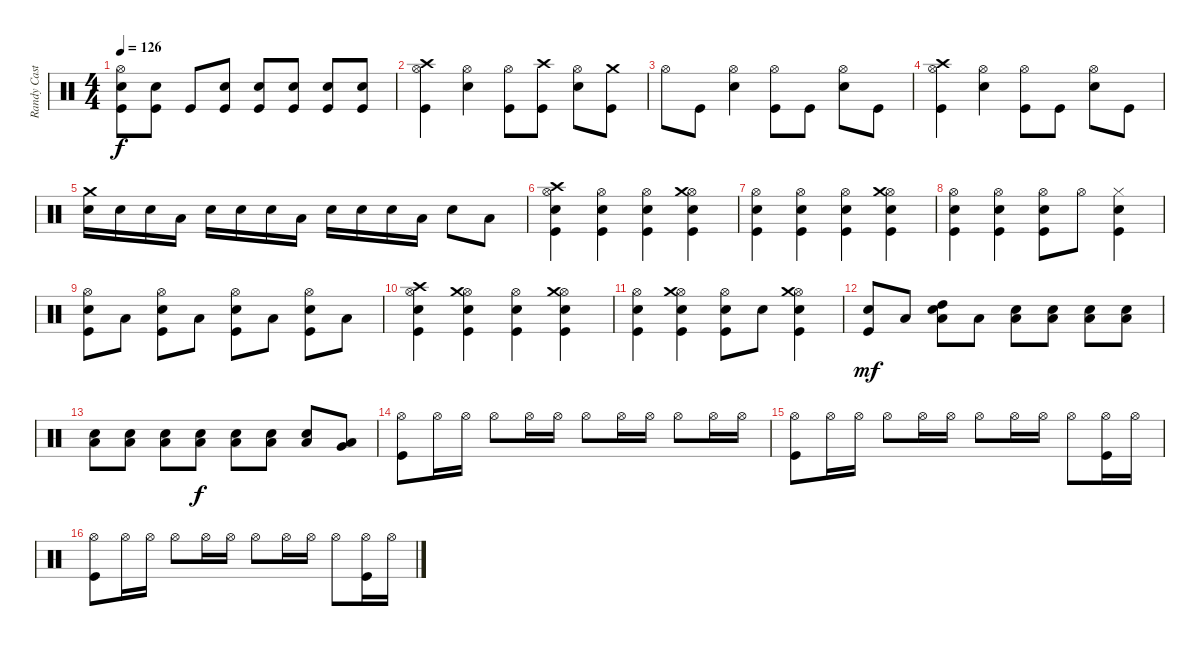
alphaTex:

\track ("Randy Castillo" "Randy Cast") {instrument percussion}
\staff {score}
\articulation defaults
\ts (4 4)
\tempo 126
\clef neutral
\ks c
("Kick (hit)" "Snare (hit) 2" "Hi-Hat (open)").8{dy f} ("Kick (hit)" "Snare (hit) 2").8 "Kick (hit)".8 ("Kick (hit)" "Snare (hit) 2").8 ("Kick (hit)" "Snare (hit) 2").8 ("Kick (hit)" "Snare (hit) 2").8 ("Kick (hit)" "Snare (hit) 2").8 ("Kick (hit)" "Snare (hit) 2").8 |
("Kick (hit)" "Hi-Hat (open)" "Crash high (hit)").4 ("Snare (hit) 2" "Hi-Hat (open)").4 ("Kick (hit)" "Hi-Hat (open)").8 ("Kick (hit)" "Crash high (hit)").8 ("Snare (hit) 2" "Hi-Hat (open)").8 ("Kick (hit)" "Crash medium (hit)").8 |
"Hi-Hat (open)".8 "Kick (hit)".8 ("Snare (hit) 2" "Hi-Hat (open)").4 ("Kick (hit)" "Hi-Hat (open)").8 "Kick (hit)".8 ("Snare (hit) 2" "Hi-Hat (open)").8 "Kick (hit)".8 |
("Kick (hit)" "Hi-Hat (open)" "Crash high (hit)").4 ("Snare (hit) 2" "Hi-Hat (open)").4 ("Kick (hit)" "Hi-Hat (open)").8 "Kick (hit)".8 ("Snare (hit) 2" "Hi-Hat (open)").8 "Kick (hit)".8 |
("Snare (hit) 2" "Crash medium (hit)").16 "Snare (hit) 2".16 "Snare (hit) 2".16 "Low Tom (hit)".16 "Snare (hit) 2".16 "Snare (hit) 2".16 "Snare (hit) 2".16 "Low Tom (hit)".16 "Snare (hit) 2".16 "Snare (hit) 2".16 "Snare (hit) 2".16 "Low Tom (hit)".16 "Snare (hit) 2".8 "Low Tom (hit)".8 |
("Kick (hit)" "Snare (hit) 2" "Hi-Hat (open)" "Crash high (hit)").4 ("Kick (hit)" "Snare (hit) 2" "Hi-Hat (open)").4 ("Kick (hit)" "Snare (hit) 2" "Hi-Hat (open)").4 ("Kick (hit)" "Snare (hit) 2" "Hi-Hat (open)" "Crash medium (hit)").4 |
("Kick (hit)" "Snare (hit) 2" "Hi-Hat (open)").4 ("Kick (hit)" "Snare (hit) 2" "Hi-Hat (open)").4 ("Kick (hit)" "Snare (hit) 2" "Hi-Hat (open)").4 ("Kick (hit)" "Snare (hit) 2" "Hi-Hat (open)" "Crash medium (hit)").4 |
("Kick (hit)" "Snare (hit) 2" "Hi-Hat (open)").4 ("Kick (hit)" "Snare (hit) 2" "Hi-Hat (open)").4 ("Kick (hit)" "Snare (hit) 2" "Hi-Hat (open)").8 "Hi-Hat (open)".8 ("Kick (hit)" "Snare (hit) 2" "Hi-Hat (closed)").4{volume 12} |
("Kick (hit)" "Snare (hit) 2" "Hi-Hat (open)").8{volume 16} "Low Tom (hit)".8 ("Kick (hit)" "Snare (hit) 2" "Hi-Hat (open)").8 "Low Tom (hit)".8 ("Kick (hit)" "Snare (hit) 2" "Hi-Hat (open)").8 "Low Tom (hit)".8 ("Kick (hit)" "Snare (hit) 2" "Hi-Hat (open)").8 "Low Tom (hit)".8 |
("Kick (hit)" "Snare (hit) 2" "Hi-Hat (open)" "Crash high (hit)").4 ("Kick (hit)" "Snare (hit) 2" "Hi-Hat (open)" "Crash medium (hit)").4 ("Kick (hit)" "Snare (hit) 2" "Hi-Hat (open)").4 ("Kick (hit)" "Snare (hit) 2" "Hi-Hat (open)" "Crash medium (hit)").4 |
("Kick (hit)" "Snare (hit) 2" "Hi-Hat (open)").4 ("Kick (hit)" "Snare (hit) 2" "Hi-Hat (open)" "Crash medium (hit)").4 ("Kick (hit)" "Snare (hit) 2" "Hi-Hat (open)").8 "Snare (hit) 2".8 ("Kick (hit)" "Snare (hit) 2" "Hi-Hat (open)" "Crash medium (hit)").4 |
("Kick (hit)" "Snare (hit) 2").8{dy mf} "Low Tom (hit)".8 ("Snare (hit) 2" "Low Tom (hit)" "High Tom (hit)").8 "Low Tom (hit)".8 ("Snare (hit) 2" "Low Tom (hit)").8 ("Snare (hit) 2" "Low Tom (hit)").8 ("Snare (hit) 2" "Low Tom (hit)").8 ("Snare (hit) 2" "Low Tom (hit)").8 |
("Snare (hit) 2" "Low Tom (hit)").8 ("Snare (hit) 2" "Low Tom (hit)").8 ("Snare (hit) 2" "Low Tom (hit)").8 ("Snare (hit) 2" "Low Tom (hit)").8{dy f} ("Snare (hit) 2" "Low Tom (hit)").8 ("Snare (hit) 2" "Low Tom (hit)").8 ("Snare (hit) 2" "Low Tom (hit)").8 ("Very Low Tom (hit)" "Low Tom (hit)").8 |
("Kick (hit)" "Hi-Hat (open)").8 "Hi-Hat (open)".16 "Hi-Hat (open)".16 "Hi-Hat (open)".8 "Hi-Hat (open)".16 "Hi-Hat (open)".16 "Hi-Hat (open)".8 "Hi-Hat (open)".16 "Hi-Hat (open)".16 "Hi-Hat (open)".8 "Hi-Hat (open)".16 "Hi-Hat (open)".16 |
("Kick (hit)" "Hi-Hat (open)").8 "Hi-Hat (open)".16 "Hi-Hat (open)".16 "Hi-Hat (open)".8 "Hi-Hat (open)".16 "Hi-Hat (open)".16 "Hi-Hat (open)".8 "Hi-Hat (open)".16 "Hi-Hat (open)".16 "Hi-Hat (open)".8 ("Kick (hit)" "Hi-Hat (open)").16 "Hi-Hat (open)".16 |
("Kick (hit)" "Hi-Hat (open)").8 "Hi-Hat (open)".16 "Hi-Hat (open)".16 "Hi-Hat (open)".8 "Hi-Hat (open)".16 "Hi-Hat (open)".16 "Hi-Hat (open)".8 "Hi-Hat (open)".16 "Hi-Hat (open)".16 "Hi-Hat (open)".8 ("Kick (hit)" "Hi-Hat (open)").16 "Hi-Hat (open)".16
